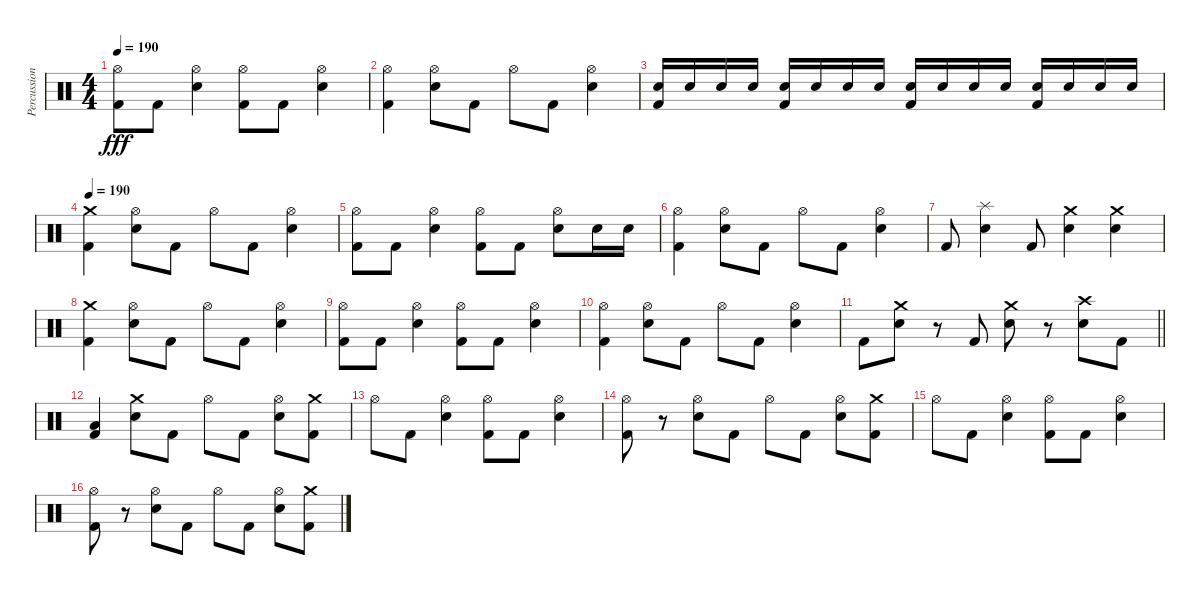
\track ("Percussion" "Percussion") {instrument percussion}
\staff {score}
\articulation defaults
\ts (4 4)
\tempo 190
\clef neutral
\ks c
("Hi-Hat (open)" "Kick (hit) 2").8{dy fff} "Kick (hit) 2".8 ("Hi-Hat (open)" "Electric Snare (hit)").4 ("Hi-Hat (open)" "Kick (hit) 2").8 "Kick (hit) 2".8 ("Hi-Hat (open)" "Electric Snare (hit)").4 |
("Hi-Hat (open)" "Kick (hit) 2").4 ("Hi-Hat (open)" "Electric Snare (hit)").8 "Kick (hit) 2".8 "Hi-Hat (open)".8 "Kick (hit) 2".8 ("Hi-Hat (open)" "Electric Snare (hit)").4 |
("Electric Snare (hit)" "Kick (hit) 2").16 "Electric Snare (hit)".16 "Electric Snare (hit)".16 "Electric Snare (hit)".16 ("Electric Snare (hit)" "Kick (hit) 2").16 "Electric Snare (hit)".16 "Electric Snare (hit)".16 "Electric Snare (hit)".16 ("Electric Snare (hit)" "Kick (hit) 2").16 "Electric Snare (hit)".16 "Electric Snare (hit)".16 "Electric Snare (hit)".16 ("Electric Snare (hit)" "Kick (hit) 2").16 "Electric Snare (hit)".16 "Electric Snare (hit)".16 "Electric Snare (hit)".16 |
\tempo 190
("Crash medium (hit)" "Kick (hit) 2").4 ("Hi-Hat (open)" "Electric Snare (hit)").8 "Kick (hit) 2".8 "Hi-Hat (open)".8 "Kick (hit) 2".8 ("Hi-Hat (open)" "Electric Snare (hit)").4 |
("Hi-Hat (open)" "Kick (hit) 2").8 "Kick (hit) 2".8 ("Hi-Hat (open)" "Electric Snare (hit)").4 ("Hi-Hat (open)" "Kick (hit) 2").8 "Kick (hit) 2".8 ("Hi-Hat (open)" "Electric Snare (hit)").8 "Electric Snare (hit)".16 "Electric Snare (hit)".16 |
("Hi-Hat (open)" "Kick (hit) 2").4 ("Hi-Hat (open)" "Electric Snare (hit)").8 "Kick (hit) 2".8 "Hi-Hat (open)".8 "Kick (hit) 2".8 ("Hi-Hat (open)" "Electric Snare (hit)").4 |
"Kick (hit) 2".8 ("Splash (hit)" "Electric Snare (hit)").4 "Kick (hit) 2".8 ("Crash medium (hit)" "Electric Snare (hit)").4 ("Crash medium (hit)" "Electric Snare (hit)").4 |
("Crash medium (hit)" "Kick (hit) 2").4 ("Hi-Hat (open)" "Electric Snare (hit)").8 "Kick (hit) 2".8 "Hi-Hat (open)".8 "Kick (hit) 2".8 ("Hi-Hat (open)" "Electric Snare (hit)").4 |
("Hi-Hat (open)" "Kick (hit) 2").8 "Kick (hit) 2".8 ("Hi-Hat (open)" "Electric Snare (hit)").4 ("Hi-Hat (open)" "Kick (hit) 2").8 "Kick (hit) 2".8 ("Hi-Hat (open)" "Electric Snare (hit)").4 |
("Hi-Hat (open)" "Kick (hit) 2").4 ("Hi-Hat (open)" "Electric Snare (hit)").8 "Kick (hit) 2".8 "Hi-Hat (open)".8 "Kick (hit) 2".8 ("Hi-Hat (open)" "Electric Snare (hit)").4 |
\barLineRight lightlight "Kick (hit) 2".8
("Crash medium (hit)" "Electric Snare (hit)").8 r.8 "Kick (hit) 2".8 ("Crash medium (hit)" "Electric Snare (hit)").8 r.8 ("Crash high (hit)" "Electric Snare (hit)").8 "Kick (hit) 2".8 |
("Low Floor Tom (hit)" "Kick (hit) 2").4 ("Crash medium (hit)" "Electric Snare (hit)").8 "Kick (hit) 2".8 "Hi-Hat (open)".8 "Kick (hit) 2".8 ("Hi-Hat (open)" "Electric Snare (hit)").8 ("Crash medium (hit)" "Kick (hit) 2").8 |
"Hi-Hat (open)".8 "Kick (hit) 2".8 ("Hi-Hat (open)" "Electric Snare (hit)").4 ("Hi-Hat (open)" "Kick (hit) 2").8 "Kick (hit) 2".8 ("Hi-Hat (open)" "Electric Snare (hit)").4 |
("Hi-Hat (open)" "Kick (hit) 2").8 r.8 ("Hi-Hat (open)" "Electric Snare (hit)").8 "Kick (hit) 2".8 "Hi-Hat (open)".8 "Kick (hit) 2".8 ("Hi-Hat (open)" "Electric Snare (hit)").8 ("Crash medium (hit)" "Kick (hit) 2").8 |
"Hi-Hat (open)".8 "Kick (hit) 2".8 ("Hi-Hat (open)" "Electric Snare (hit)").4 ("Hi-Hat (open)" "Kick (hit) 2").8 "Kick (hit) 2".8 ("Hi-Hat (open)" "Electric Snare (hit)").4 |
("Hi-Hat (open)" "Kick (hit) 2").8 r.8 ("Hi-Hat (open)" "Electric Snare (hit)").8 "Kick (hit) 2".8 "Hi-Hat (open)".8 "Kick (hit) 2".8 ("Hi-Hat (open)" "Electric Snare (hit)").8 ("Crash medium (hit)" "Kick (hit) 2").8
